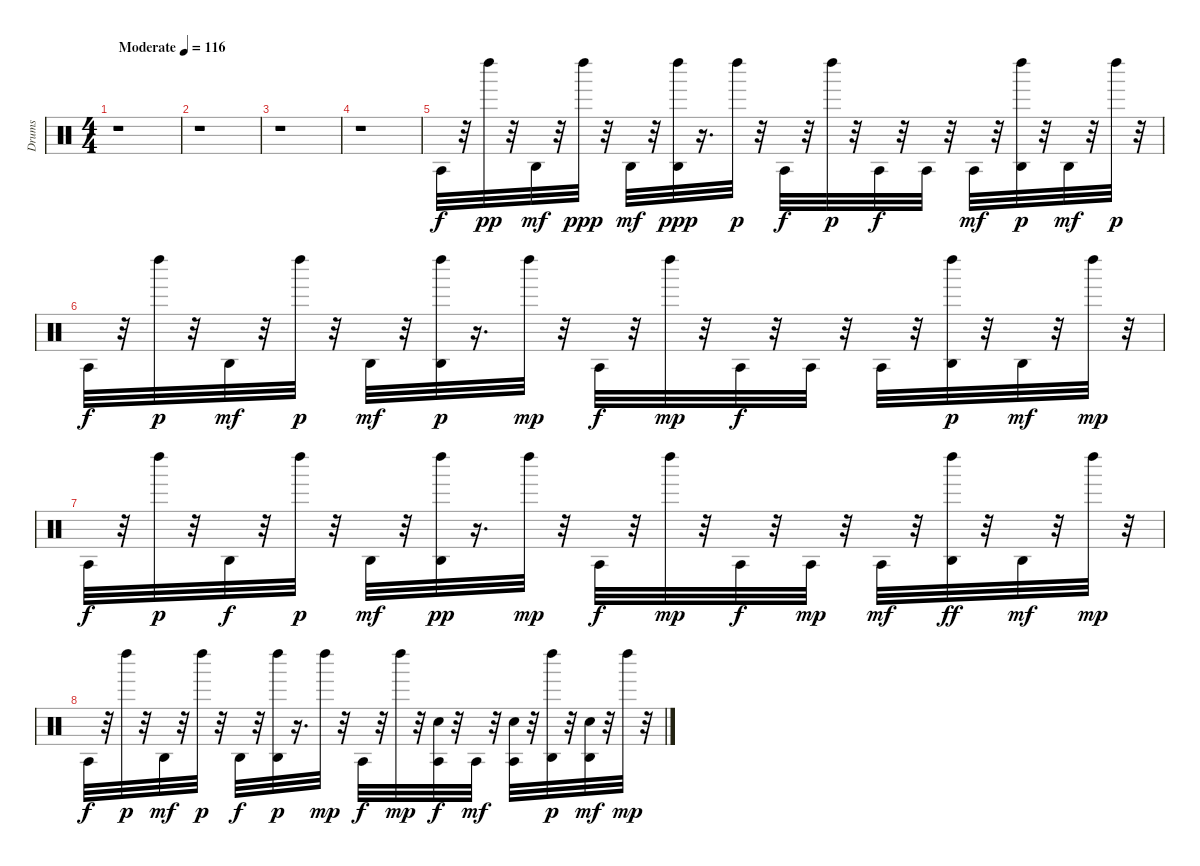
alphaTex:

\track ("Drums" "Drums") {instrument percussion}
\staff {score}
\articulation defaults
\ts (4 4)
\tempo (116 "Moderate")
\clef neutral
\ks c
r.1{dy f} |
r.1 |
r.1 |
r.1 |
"Agogo tow (hit)".32 r.32 "Left Maraca (hit)".32{dy pp} r.32 "Agogo high (hit)".32{dy mf} r.32 "Left Maraca (hit)".32{dy ppp} r.32 "Agogo high (hit)".32{dy mf} r.32 ("Agogo high (hit)" "Left Maraca (hit)").32{dy ppp} r.16{d} "Left Maraca (hit)".32{dy p} r.32 "Agogo tow (hit)".32{dy f} r.32 "Left Maraca (hit)".32{dy p} r.32 "Agogo tow (hit)".32{dy f} r.32 "Agogo tow (hit)".32 r.32 "Agogo tow (hit)".32{dy mf} r.32 ("Agogo high (hit)" "Left Maraca (hit)").32{dy p} r.32 "Agogo high (hit)".32{dy mf} r.32 "Left Maraca (hit)".32{dy p} r.32 |
"Agogo tow (hit)".32{dy f} r.32 "Left Maraca (hit)".32{dy p} r.32 "Agogo high (hit)".32{dy mf} r.32 "Left Maraca (hit)".32{dy p} r.32 "Agogo high (hit)".32{dy mf} r.32 ("Agogo high (hit)" "Left Maraca (hit)").32{dy p} r.16{d} "Left Maraca (hit)".32{dy mp} r.32 "Agogo tow (hit)".32{dy f} r.32 "Left Maraca (hit)".32{dy mp} r.32 "Agogo tow (hit)".32{dy f} r.32 "Agogo tow (hit)".32 r.32 "Agogo tow (hit)".32 r.32 ("Agogo high (hit)" "Left Maraca (hit)").32{dy p} r.32 "Agogo high (hit)".32{dy mf} r.32 "Left Maraca (hit)".32{dy mp} r.32 |
"Agogo tow (hit)".32{dy f} r.32 "Left Maraca (hit)".32{dy p} r.32 "Agogo high (hit)".32{dy f} r.32 "Left Maraca (hit)".32{dy p} r.32 "Agogo high (hit)".32{dy mf} r.32 ("Agogo high (hit)" "Left Maraca (hit)").32{dy pp} r.16{d} "Left Maraca (hit)".32{dy mp} r.32 "Agogo tow (hit)".32{dy f} r.32 "Left Maraca (hit)".32{dy mp} r.32 "Agogo tow (hit)".32{dy f} r.32 "Agogo tow (hit)".32{dy mp} r.32 "Agogo tow (hit)".32{dy mf} r.32 ("Left Maraca (hit)" "Agogo high (hit)").32{dy ff} r.32 "Agogo high (hit)".32{dy mf} r.32 "Left Maraca (hit)".32{dy mp} r.32 |
"Agogo tow (hit)".32{dy f} r.32 "Left Maraca (hit)".32{dy p} r.32 "Agogo high (hit)".32{dy mf} r.32 "Left Maraca (hit)".32{dy p} r.32 "Agogo high (hit)".32{dy f} r.32 ("Agogo high (hit)" "Left Maraca (hit)").32{dy p} r.16{d} "Left Maraca (hit)".32{dy mp} r.32 "Agogo tow (hit)".32{dy f} r.32 "Left Maraca (hit)".32{dy mp} r.32 ("Agogo tow (hit)" "Snare (hit) 2").32{dy f} r.32 "Agogo tow (hit)".32{dy mf} r.32 ("Snare (hit) 2" "Agogo tow (hit)").32 r.32 ("Agogo high (hit)" "Left Maraca (hit)").32{dy p} r.32 ("Snare (hit) 2" "Agogo high (hit)").32{dy mf} r.32 "Left Maraca (hit)".32{dy mp} r.32
